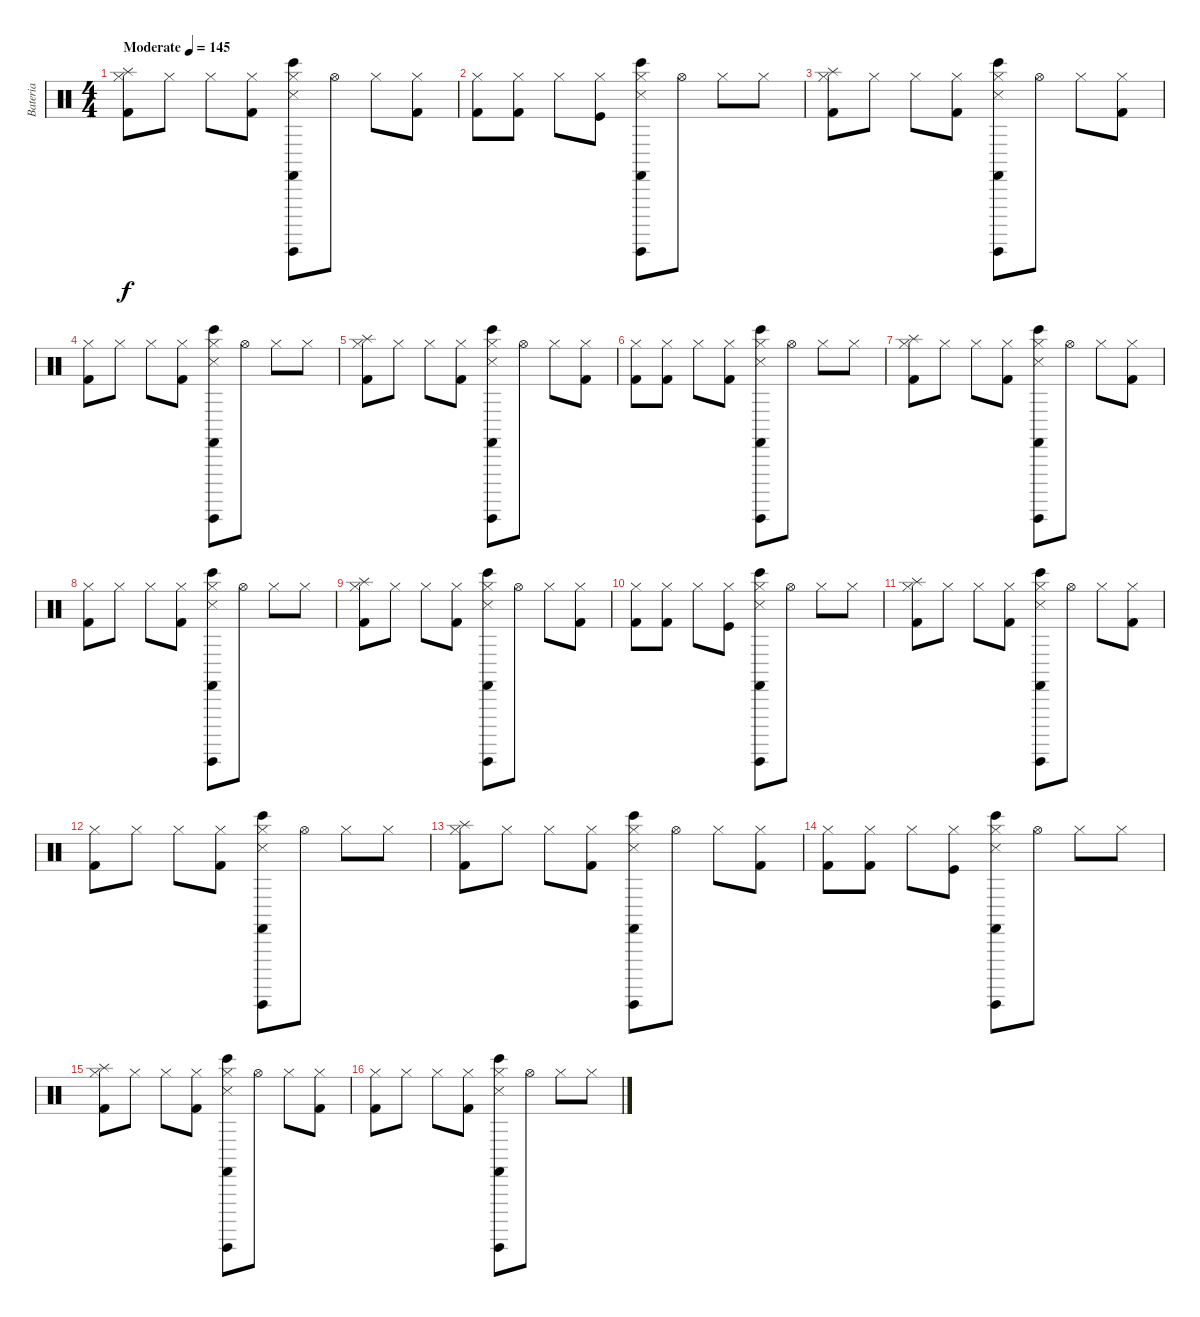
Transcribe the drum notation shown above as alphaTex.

\track ("Bateria" "Bateria") {instrument percussion}
\staff {score}
\articulation defaults
\ts (4 4)
\tempo (145 "Moderate")
\clef neutral
\ks c
("Kick (hit) 2" "Hi-Hat (closed)" "Splash (hit)").8{dy f} "Hi-Hat (closed)".8 "Hi-Hat (closed)".8 ("Kick (hit) 2" "Hi-Hat (closed)").8 ("Snare (side stick) 3" "Hi-Hat (closed)" "Guiro (hit)" "Castanets (hit)" "Bongo High (hit)").8 "Hi-Hat (open)".8 "Hi-Hat (closed)".8 ("Kick (hit) 2" "Hi-Hat (closed)").8 |
("Kick (hit) 2" "Hi-Hat (closed)").8 ("Kick (hit) 2" "Hi-Hat (closed)").8 "Hi-Hat (closed)".8 ("Kick (hit)" "Hi-Hat (closed)").8 ("Snare (side stick) 3" "Hi-Hat (closed)" "Guiro (hit)" "Castanets (hit)" "Bongo High (hit)").8 "Hi-Hat (open)".8 "Hi-Hat (closed)".8 "Hi-Hat (closed)".8 |
("Kick (hit) 2" "Hi-Hat (closed)" "Splash (hit)").8 "Hi-Hat (closed)".8 "Hi-Hat (closed)".8 ("Kick (hit) 2" "Hi-Hat (closed)").8 ("Snare (side stick) 3" "Hi-Hat (closed)" "Guiro (hit)" "Castanets (hit)" "Bongo High (hit)").8 "Hi-Hat (open)".8 "Hi-Hat (closed)".8 ("Kick (hit) 2" "Hi-Hat (closed)").8 |
("Kick (hit) 2" "Hi-Hat (closed)").8 "Hi-Hat (closed)".8 "Hi-Hat (closed)".8 ("Kick (hit) 2" "Hi-Hat (closed)").8 ("Snare (side stick) 3" "Hi-Hat (closed)" "Guiro (hit)" "Castanets (hit)" "Bongo High (hit)").8 "Hi-Hat (open)".8 "Hi-Hat (closed)".8 "Hi-Hat (closed)".8 |
("Kick (hit) 2" "Hi-Hat (closed)" "Splash (hit)").8 "Hi-Hat (closed)".8 "Hi-Hat (closed)".8 ("Kick (hit) 2" "Hi-Hat (closed)").8 ("Snare (side stick) 3" "Hi-Hat (closed)" "Guiro (hit)" "Castanets (hit)" "Bongo High (hit)").8 "Hi-Hat (open)".8 "Hi-Hat (closed)".8 ("Kick (hit) 2" "Hi-Hat (closed)").8 |
("Kick (hit) 2" "Hi-Hat (closed)").8 ("Kick (hit) 2" "Hi-Hat (closed)").8 "Hi-Hat (closed)".8 ("Kick (hit) 2" "Hi-Hat (closed)").8 ("Snare (side stick) 3" "Hi-Hat (closed)" "Guiro (hit)" "Castanets (hit)" "Bongo High (hit)").8 "Hi-Hat (open)".8 "Hi-Hat (closed)".8 "Hi-Hat (closed)".8 |
("Kick (hit) 2" "Hi-Hat (closed)" "Splash (hit)").8 "Hi-Hat (closed)".8 "Hi-Hat (closed)".8 ("Kick (hit) 2" "Hi-Hat (closed)").8 ("Snare (side stick) 3" "Hi-Hat (closed)" "Guiro (hit)" "Castanets (hit)" "Bongo High (hit)").8 "Hi-Hat (open)".8 "Hi-Hat (closed)".8 ("Kick (hit) 2" "Hi-Hat (closed)").8 |
("Kick (hit) 2" "Hi-Hat (closed)").8 "Hi-Hat (closed)".8 "Hi-Hat (closed)".8 ("Kick (hit) 2" "Hi-Hat (closed)").8 ("Snare (side stick) 3" "Hi-Hat (closed)" "Guiro (hit)" "Castanets (hit)" "Bongo High (hit)").8 "Hi-Hat (open)".8 "Hi-Hat (closed)".8 "Hi-Hat (closed)".8 |
("Kick (hit) 2" "Hi-Hat (closed)" "Splash (hit)").8 "Hi-Hat (closed)".8 "Hi-Hat (closed)".8 ("Kick (hit) 2" "Hi-Hat (closed)").8 ("Snare (side stick) 3" "Hi-Hat (closed)" "Guiro (hit)" "Castanets (hit)" "Bongo High (hit)").8 "Hi-Hat (open)".8 "Hi-Hat (closed)".8 ("Kick (hit) 2" "Hi-Hat (closed)").8 |
("Kick (hit) 2" "Hi-Hat (closed)").8 ("Kick (hit) 2" "Hi-Hat (closed)").8 "Hi-Hat (closed)".8 ("Kick (hit)" "Hi-Hat (closed)").8 ("Snare (side stick) 3" "Hi-Hat (closed)" "Guiro (hit)" "Castanets (hit)" "Bongo High (hit)").8 "Hi-Hat (open)".8 "Hi-Hat (closed)".8 "Hi-Hat (closed)".8 |
("Kick (hit) 2" "Hi-Hat (closed)" "Splash (hit)").8 "Hi-Hat (closed)".8 "Hi-Hat (closed)".8 ("Kick (hit) 2" "Hi-Hat (closed)").8 ("Snare (side stick) 3" "Hi-Hat (closed)" "Guiro (hit)" "Castanets (hit)" "Bongo High (hit)").8 "Hi-Hat (open)".8 "Hi-Hat (closed)".8 ("Kick (hit) 2" "Hi-Hat (closed)").8 |
("Kick (hit) 2" "Hi-Hat (closed)").8 "Hi-Hat (closed)".8 "Hi-Hat (closed)".8 ("Kick (hit) 2" "Hi-Hat (closed)").8 ("Snare (side stick) 3" "Hi-Hat (closed)" "Guiro (hit)" "Castanets (hit)" "Bongo High (hit)").8 "Hi-Hat (open)".8 "Hi-Hat (closed)".8 "Hi-Hat (closed)".8 |
("Kick (hit) 2" "Hi-Hat (closed)" "Splash (hit)").8 "Hi-Hat (closed)".8 "Hi-Hat (closed)".8 ("Kick (hit) 2" "Hi-Hat (closed)").8 ("Snare (side stick) 3" "Hi-Hat (closed)" "Guiro (hit)" "Castanets (hit)" "Bongo High (hit)").8 "Hi-Hat (open)".8 "Hi-Hat (closed)".8 ("Kick (hit) 2" "Hi-Hat (closed)").8 |
("Kick (hit) 2" "Hi-Hat (closed)").8 ("Kick (hit) 2" "Hi-Hat (closed)").8 "Hi-Hat (closed)".8 ("Kick (hit)" "Hi-Hat (closed)").8 ("Snare (side stick) 3" "Hi-Hat (closed)" "Guiro (hit)" "Castanets (hit)" "Bongo High (hit)").8 "Hi-Hat (open)".8 "Hi-Hat (closed)".8 "Hi-Hat (closed)".8 |
("Kick (hit) 2" "Hi-Hat (closed)" "Splash (hit)").8 "Hi-Hat (closed)".8 "Hi-Hat (closed)".8 ("Kick (hit) 2" "Hi-Hat (closed)").8 ("Snare (side stick) 3" "Hi-Hat (closed)" "Guiro (hit)" "Castanets (hit)" "Bongo High (hit)").8 "Hi-Hat (open)".8 "Hi-Hat (closed)".8 ("Kick (hit) 2" "Hi-Hat (closed)").8 |
("Kick (hit) 2" "Hi-Hat (closed)").8 "Hi-Hat (closed)".8 "Hi-Hat (closed)".8 ("Kick (hit) 2" "Hi-Hat (closed)").8 ("Snare (side stick) 3" "Hi-Hat (closed)" "Guiro (hit)" "Castanets (hit)" "Bongo High (hit)").8 "Hi-Hat (open)".8 "Hi-Hat (closed)".8 "Hi-Hat (closed)".8
